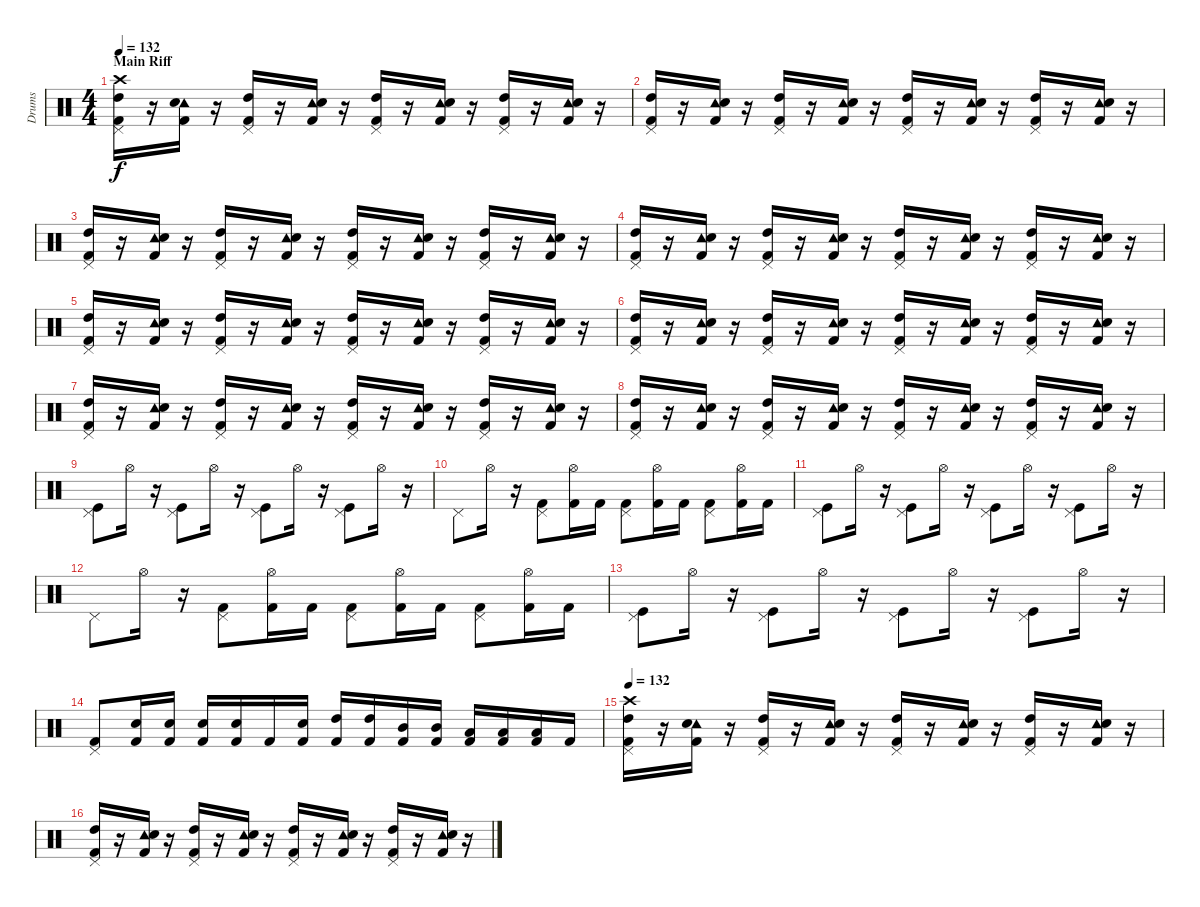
\track ("Drums" "Drums") {instrument percussion}
\staff {score}
\articulation defaults
\ts (4 4)
\section ("" "Main Riff")
\tempo 132
\clef neutral
\ks c
("Crash high (hit)" "Pedal Hi-Hat (hit)" "Kick (hit) 2" "High Tom (hit)").16{dy f} r.16 ("Tambourine (hit)" "Kick (hit) 2" "Snare (hit) 2").16 r.16 ("Pedal Hi-Hat (hit)" "Kick (hit) 2" "High Tom (hit)").16 r.16 ("Tambourine (hit)" "Kick (hit) 2" "Snare (hit) 2").16 r.16 ("Pedal Hi-Hat (hit)" "Kick (hit) 2" "High Tom (hit)").16 r.16 ("Tambourine (hit)" "Kick (hit) 2" "Snare (hit) 2").16 r.16 ("Pedal Hi-Hat (hit)" "Kick (hit) 2" "High Tom (hit)").16 r.16 ("Tambourine (hit)" "Kick (hit) 2" "Snare (hit) 2").16 r.16 |
("Pedal Hi-Hat (hit)" "Kick (hit) 2" "High Tom (hit)").16 r.16 ("Tambourine (hit)" "Kick (hit) 2" "Snare (hit) 2").16 r.16 ("Pedal Hi-Hat (hit)" "Kick (hit) 2" "High Tom (hit)").16 r.16 ("Tambourine (hit)" "Kick (hit) 2" "Snare (hit) 2").16 r.16 ("Pedal Hi-Hat (hit)" "Kick (hit) 2" "High Tom (hit)").16 r.16 ("Tambourine (hit)" "Kick (hit) 2" "Snare (hit) 2").16 r.16 ("Pedal Hi-Hat (hit)" "Kick (hit) 2" "High Tom (hit)").16 r.16 ("Tambourine (hit)" "Kick (hit) 2" "Snare (hit) 2").16 r.16 |
("Pedal Hi-Hat (hit)" "Kick (hit) 2" "High Tom (hit)").16 r.16 ("Tambourine (hit)" "Kick (hit) 2" "Snare (hit) 2").16 r.16 ("Pedal Hi-Hat (hit)" "Kick (hit) 2" "High Tom (hit)").16 r.16 ("Tambourine (hit)" "Kick (hit) 2" "Snare (hit) 2").16 r.16 ("Pedal Hi-Hat (hit)" "Kick (hit) 2" "High Tom (hit)").16 r.16 ("Tambourine (hit)" "Kick (hit) 2" "Snare (hit) 2").16 r.16 ("Pedal Hi-Hat (hit)" "Kick (hit) 2" "High Tom (hit)").16 r.16 ("Tambourine (hit)" "Kick (hit) 2" "Snare (hit) 2").16 r.16 |
("Pedal Hi-Hat (hit)" "Kick (hit) 2" "High Tom (hit)").16 r.16 ("Tambourine (hit)" "Kick (hit) 2" "Snare (hit) 2").16 r.16 ("Pedal Hi-Hat (hit)" "Kick (hit) 2" "High Tom (hit)").16 r.16 ("Tambourine (hit)" "Kick (hit) 2" "Snare (hit) 2").16 r.16 ("Pedal Hi-Hat (hit)" "Kick (hit) 2" "High Tom (hit)").16 r.16 ("Tambourine (hit)" "Kick (hit) 2" "Snare (hit) 2").16 r.16 ("Pedal Hi-Hat (hit)" "Kick (hit) 2" "High Tom (hit)").16 r.16 ("Tambourine (hit)" "Kick (hit) 2" "Snare (hit) 2").16 r.16 |
("Pedal Hi-Hat (hit)" "Kick (hit) 2" "High Tom (hit)").16 r.16 ("Tambourine (hit)" "Kick (hit) 2" "Snare (hit) 2").16 r.16 ("Pedal Hi-Hat (hit)" "Kick (hit) 2" "High Tom (hit)").16 r.16 ("Tambourine (hit)" "Kick (hit) 2" "Snare (hit) 2").16 r.16 ("Pedal Hi-Hat (hit)" "Kick (hit) 2" "High Tom (hit)").16 r.16 ("Tambourine (hit)" "Kick (hit) 2" "Snare (hit) 2").16 r.16 ("Pedal Hi-Hat (hit)" "Kick (hit) 2" "High Tom (hit)").16 r.16 ("Tambourine (hit)" "Kick (hit) 2" "Snare (hit) 2").16 r.16 |
("Pedal Hi-Hat (hit)" "Kick (hit) 2" "High Tom (hit)").16 r.16 ("Tambourine (hit)" "Kick (hit) 2" "Snare (hit) 2").16 r.16 ("Pedal Hi-Hat (hit)" "Kick (hit) 2" "High Tom (hit)").16 r.16 ("Tambourine (hit)" "Kick (hit) 2" "Snare (hit) 2").16 r.16 ("Pedal Hi-Hat (hit)" "Kick (hit) 2" "High Tom (hit)").16 r.16 ("Tambourine (hit)" "Kick (hit) 2" "Snare (hit) 2").16 r.16 ("Pedal Hi-Hat (hit)" "Kick (hit) 2" "High Tom (hit)").16 r.16 ("Tambourine (hit)" "Kick (hit) 2" "Snare (hit) 2").16 r.16 |
("Pedal Hi-Hat (hit)" "Kick (hit) 2" "High Tom (hit)").16 r.16 ("Tambourine (hit)" "Kick (hit) 2" "Snare (hit) 2").16 r.16 ("Pedal Hi-Hat (hit)" "Kick (hit) 2" "High Tom (hit)").16 r.16 ("Tambourine (hit)" "Kick (hit) 2" "Snare (hit) 2").16 r.16 ("Pedal Hi-Hat (hit)" "Kick (hit) 2" "High Tom (hit)").16 r.16 ("Tambourine (hit)" "Kick (hit) 2" "Snare (hit) 2").16 r.16 ("Pedal Hi-Hat (hit)" "Kick (hit) 2" "High Tom (hit)").16 r.16 ("Tambourine (hit)" "Kick (hit) 2" "Snare (hit) 2").16 r.16 |
("Pedal Hi-Hat (hit)" "Kick (hit) 2" "High Tom (hit)").16 r.16 ("Tambourine (hit)" "Kick (hit) 2" "Snare (hit) 2").16 r.16 ("Pedal Hi-Hat (hit)" "Kick (hit) 2" "High Tom (hit)").16 r.16 ("Tambourine (hit)" "Kick (hit) 2" "Snare (hit) 2").16 r.16 ("Pedal Hi-Hat (hit)" "Kick (hit) 2" "High Tom (hit)").16 r.16 ("Tambourine (hit)" "Kick (hit) 2" "Snare (hit) 2").16 r.16 ("Pedal Hi-Hat (hit)" "Kick (hit) 2" "High Tom (hit)").16 r.16 ("Tambourine (hit)" "Kick (hit) 2" "Snare (hit) 2").16 r.16 |
("Pedal Hi-Hat (hit)" "Kick (hit)").8 "Hi-Hat (open)".16 r.16 ("Pedal Hi-Hat (hit)" "Kick (hit)").8 "Hi-Hat (open)".16 r.16 ("Pedal Hi-Hat (hit)" "Kick (hit)").8 "Hi-Hat (open)".16 r.16 ("Pedal Hi-Hat (hit)" "Kick (hit)").8 "Hi-Hat (open)".16 r.16 |
"Pedal Hi-Hat (hit)".8 "Hi-Hat (open)".16 r.16 ("Pedal Hi-Hat (hit)" "Kick (hit) 2").8 ("Hi-Hat (open)" "Kick (hit) 2").16 "Kick (hit) 2".16 ("Pedal Hi-Hat (hit)" "Kick (hit) 2").8 ("Hi-Hat (open)" "Kick (hit) 2").16 "Kick (hit) 2".16 ("Pedal Hi-Hat (hit)" "Kick (hit) 2").8 ("Hi-Hat (open)" "Kick (hit) 2").16 "Kick (hit) 2".16 |
("Pedal Hi-Hat (hit)" "Kick (hit)").8 "Hi-Hat (open)".16 r.16 ("Pedal Hi-Hat (hit)" "Kick (hit)").8 "Hi-Hat (open)".16 r.16 ("Pedal Hi-Hat (hit)" "Kick (hit)").8 "Hi-Hat (open)".16 r.16 ("Pedal Hi-Hat (hit)" "Kick (hit)").8 "Hi-Hat (open)".16 r.16 |
"Pedal Hi-Hat (hit)".8 "Hi-Hat (open)".16 r.16 ("Pedal Hi-Hat (hit)" "Kick (hit) 2").8 ("Hi-Hat (open)" "Kick (hit) 2").16 "Kick (hit) 2".16 ("Pedal Hi-Hat (hit)" "Kick (hit) 2").8 ("Hi-Hat (open)" "Kick (hit) 2").16 "Kick (hit) 2".16 ("Pedal Hi-Hat (hit)" "Kick (hit) 2").8 ("Hi-Hat (open)" "Kick (hit) 2").16 "Kick (hit) 2".16 |
("Pedal Hi-Hat (hit)" "Kick (hit)").8 "Hi-Hat (open)".16 r.16 ("Pedal Hi-Hat (hit)" "Kick (hit)").8 "Hi-Hat (open)".16 r.16 ("Pedal Hi-Hat (hit)" "Kick (hit)").8 "Hi-Hat (open)".16 r.16 ("Pedal Hi-Hat (hit)" "Kick (hit)").8 "Hi-Hat (open)".16 r.16 |
("Pedal Hi-Hat (hit)" "Kick (hit) 2").8 ("Snare (hit) 2" "Kick (hit) 2").16 ("Snare (hit) 2" "Kick (hit) 2").16 ("Snare (hit) 2" "Kick (hit) 2").16 ("Snare (hit) 2" "Kick (hit) 2").16 "Kick (hit) 2".16 ("Snare (hit) 2" "Kick (hit) 2").16 ("High Tom (hit)" "Kick (hit) 2").16 ("High Tom (hit)" "Kick (hit) 2").16 ("Mid Tom (hit)" "Kick (hit) 2").16 ("Mid Tom (hit)" "Kick (hit) 2").16 ("Low Tom (hit)" "Kick (hit) 2").16 ("Low Tom (hit)" "Kick (hit) 2").16 ("Low Tom (hit)" "Kick (hit) 2").16 "Kick (hit) 2".16 |
\tempo 132
("Crash high (hit)" "Pedal Hi-Hat (hit)" "Kick (hit) 2" "High Tom (hit)").16 r.16 ("Tambourine (hit)" "Kick (hit) 2" "Snare (hit) 2").16 r.16 ("Pedal Hi-Hat (hit)" "Kick (hit) 2" "High Tom (hit)").16 r.16 ("Tambourine (hit)" "Kick (hit) 2" "Snare (hit) 2").16 r.16 ("Pedal Hi-Hat (hit)" "Kick (hit) 2" "High Tom (hit)").16 r.16 ("Tambourine (hit)" "Kick (hit) 2" "Snare (hit) 2").16 r.16 ("Pedal Hi-Hat (hit)" "Kick (hit) 2" "High Tom (hit)").16 r.16 ("Tambourine (hit)" "Kick (hit) 2" "Snare (hit) 2").16 r.16 |
("Pedal Hi-Hat (hit)" "Kick (hit) 2" "High Tom (hit)").16 r.16 ("Tambourine (hit)" "Kick (hit) 2" "Snare (hit) 2").16 r.16 ("Pedal Hi-Hat (hit)" "Kick (hit) 2" "High Tom (hit)").16 r.16 ("Tambourine (hit)" "Kick (hit) 2" "Snare (hit) 2").16 r.16 ("Pedal Hi-Hat (hit)" "Kick (hit) 2" "High Tom (hit)").16 r.16 ("Tambourine (hit)" "Kick (hit) 2" "Snare (hit) 2").16 r.16 ("Pedal Hi-Hat (hit)" "Kick (hit) 2" "High Tom (hit)").16 r.16 ("Tambourine (hit)" "Kick (hit) 2" "Snare (hit) 2").16 r.16
